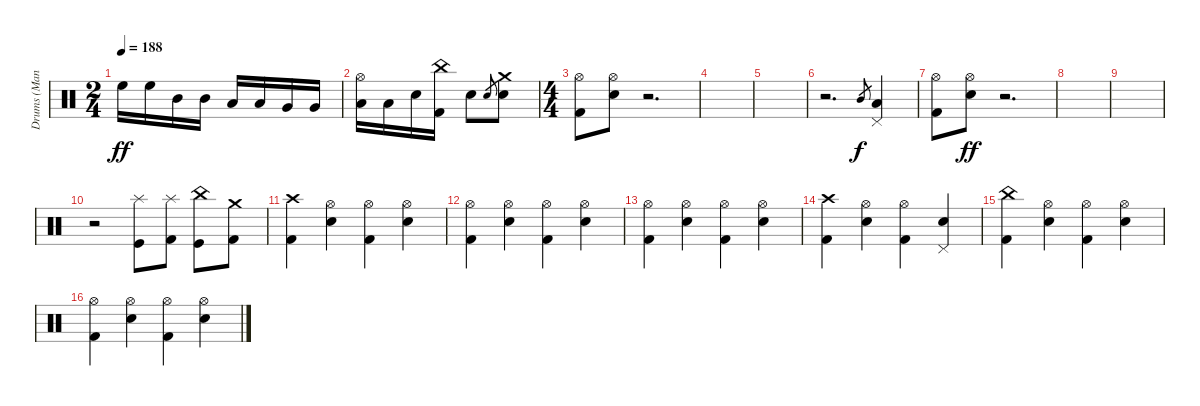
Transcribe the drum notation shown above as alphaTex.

\track ("Drums (Manheim)" "Drums (Man") {instrument percussion}
\staff {score}
\articulation defaults
\ts (2 4)
\tempo 188
\clef neutral
\ks c "High Floor Tom (hit)".16{dy ff} "High Floor Tom (hit)".16 "Mid Tom (hit)".16 "Mid Tom (hit)".16 "Low Tom (hit)".16 "Low Tom (hit)".16 "Very Low Tom (hit)".16 "Very Low Tom (hit)".16
|
("Hi-Hat (open)" "Low Floor Tom (hit)").16 "Low Floor Tom (hit)".16 "Electric Snare (hit)".16 ("China (hit)" "Kick (hit) 2").16 "Electric Snare (hit)".8 "Electric Snare (hit)".8{gr} ("Crash medium (hit)" "Electric Snare (hit)").8 |
\ts (4 4)
("Hi-Hat (open)" "Kick (hit) 2").8 ("Hi-Hat (open)" "Electric Snare (hit)").8 r.2{d} |
|
|
r.2{d} "Mid Tom (hit)".8{gr dy f} ("Pedal Hi-Hat (hit)" "Low Tom (hit)").4 |
("Hi-Hat (open)" "Kick (hit) 2").8 ("Hi-Hat (open)" "Electric Snare (hit)").8{dy ff} r.2{d} |
|
|
r.2 ("Splash (hit)" "Kick (hit)").8 ("Splash (hit)" "Kick (hit) 2").8 ("China (hit)" "Kick (hit)").8 ("Crash medium (hit)" "Kick (hit) 2").8 |
("Crash high (hit)" "Kick (hit) 2").4 ("Hi-Hat (open)" "Electric Snare (hit)").4 ("Hi-Hat (open)" "Kick (hit) 2").4 ("Hi-Hat (open)" "Electric Snare (hit)").4 |
("Hi-Hat (open)" "Kick (hit) 2").4 ("Hi-Hat (open)" "Electric Snare (hit)").4 ("Hi-Hat (open)" "Kick (hit) 2").4 ("Hi-Hat (open)" "Electric Snare (hit)").4 |
("Hi-Hat (open)" "Kick (hit) 2").4 ("Hi-Hat (open)" "Electric Snare (hit)").4 ("Hi-Hat (open)" "Kick (hit) 2").4 ("Hi-Hat (open)" "Electric Snare (hit)").4 |
("Crash high (hit)" "Kick (hit) 2").4 ("Hi-Hat (open)" "Electric Snare (hit)").4 ("Hi-Hat (open)" "Kick (hit) 2").4 ("Pedal Hi-Hat (hit)" "Electric Snare (hit)").4 |
("China (hit)" "Kick (hit) 2").4 ("Hi-Hat (open)" "Electric Snare (hit)").4 ("Hi-Hat (open)" "Kick (hit) 2").4 ("Hi-Hat (open)" "Electric Snare (hit)").4 |
("Hi-Hat (open)" "Kick (hit) 2").4 ("Hi-Hat (open)" "Electric Snare (hit)").4 ("Hi-Hat (open)" "Kick (hit) 2").4 ("Hi-Hat (open)" "Electric Snare (hit)").4
